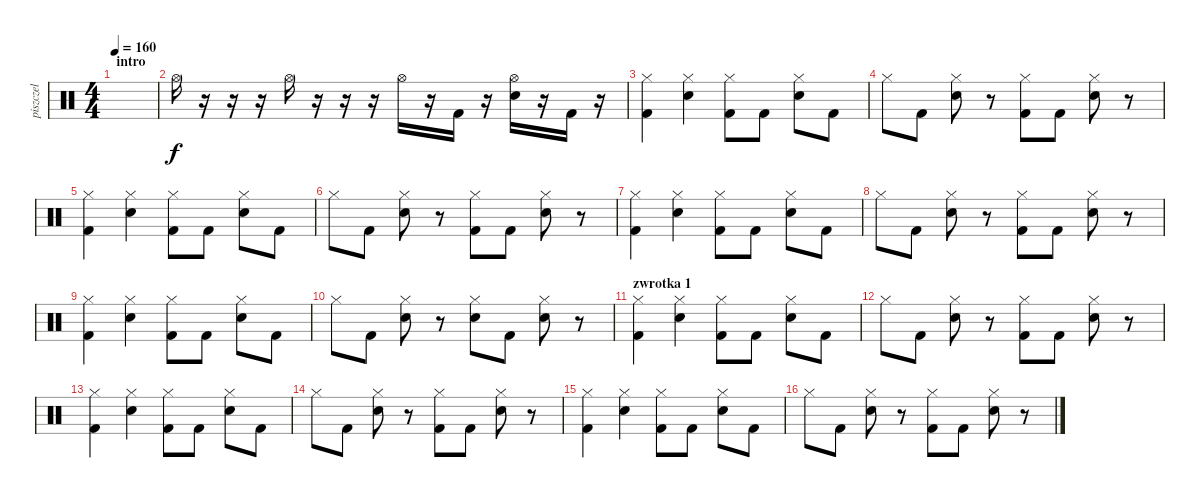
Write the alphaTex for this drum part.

\track ("piszczel" "piszczel") {instrument percussion}
\staff {score}
\articulation defaults
\ts (4 4)
\section ("" "intro")
\tempo 160
\clef neutral
\ks c
|
"Hi-Hat (open)".16 r.16 r.16 r.16 "Hi-Hat (open)".16 r.16 r.16 r.16 "Hi-Hat (open)".16 r.16 "Kick (hit) 2".16 r.16 ("Hi-Hat (open)" "Snare (hit) 2").16 r.16 "Kick (hit) 2".16 r.16 |
("Hi-Hat (closed)" "Kick (hit) 2").4 ("Hi-Hat (closed)" "Snare (hit) 2").4 ("Hi-Hat (closed)" "Kick (hit) 2").8 "Kick (hit) 2".8 ("Hi-Hat (closed)" "Snare (hit) 2").8 "Kick (hit) 2".8 |
"Hi-Hat (closed)".8 "Kick (hit) 2".8 ("Hi-Hat (closed)" "Snare (hit) 2").8 r.8 ("Hi-Hat (closed)" "Kick (hit) 2").8 "Kick (hit) 2".8 ("Hi-Hat (closed)" "Snare (hit) 2").8 r.8 |
("Hi-Hat (closed)" "Kick (hit) 2").4 ("Hi-Hat (closed)" "Snare (hit) 2").4 ("Hi-Hat (closed)" "Kick (hit) 2").8 "Kick (hit) 2".8 ("Hi-Hat (closed)" "Snare (hit) 2").8 "Kick (hit) 2".8 |
"Hi-Hat (closed)".8 "Kick (hit) 2".8 ("Hi-Hat (closed)" "Snare (hit) 2").8 r.8 ("Hi-Hat (closed)" "Kick (hit) 2").8 "Kick (hit) 2".8 ("Hi-Hat (closed)" "Snare (hit) 2").8 r.8 |
("Hi-Hat (closed)" "Kick (hit) 2").4 ("Hi-Hat (closed)" "Snare (hit) 2").4 ("Hi-Hat (closed)" "Kick (hit) 2").8 "Kick (hit) 2".8 ("Hi-Hat (closed)" "Snare (hit) 2").8 "Kick (hit) 2".8 |
"Hi-Hat (closed)".8 "Kick (hit) 2".8 ("Hi-Hat (closed)" "Snare (hit) 2").8 r.8 ("Hi-Hat (closed)" "Kick (hit) 2").8 "Kick (hit) 2".8 ("Hi-Hat (closed)" "Snare (hit) 2").8 r.8 |
("Hi-Hat (closed)" "Kick (hit) 2").4 ("Hi-Hat (closed)" "Snare (hit) 2").4 ("Hi-Hat (closed)" "Kick (hit) 2").8 "Kick (hit) 2".8 ("Hi-Hat (closed)" "Snare (hit) 2").8 "Kick (hit) 2".8 |
"Hi-Hat (closed)".8 "Kick (hit) 2".8 ("Hi-Hat (closed)" "Snare (hit) 2").8 r.8 ("Hi-Hat (closed)" "Snare (hit) 2").8 "Kick (hit) 2".8 ("Hi-Hat (closed)" "Snare (hit) 2").8 r.8 |
\section ("" "zwrotka 1")
("Hi-Hat (closed)" "Kick (hit) 2").4 ("Hi-Hat (closed)" "Snare (hit) 2").4 ("Hi-Hat (closed)" "Kick (hit) 2").8 "Kick (hit) 2".8 ("Hi-Hat (closed)" "Snare (hit) 2").8 "Kick (hit) 2".8 |
"Hi-Hat (closed)".8 "Kick (hit) 2".8 ("Hi-Hat (closed)" "Snare (hit) 2").8 r.8 ("Hi-Hat (closed)" "Kick (hit) 2").8 "Kick (hit) 2".8 ("Hi-Hat (closed)" "Snare (hit) 2").8 r.8 |
("Hi-Hat (closed)" "Kick (hit) 2").4 ("Hi-Hat (closed)" "Snare (hit) 2").4 ("Hi-Hat (closed)" "Kick (hit) 2").8 "Kick (hit) 2".8 ("Hi-Hat (closed)" "Snare (hit) 2").8 "Kick (hit) 2".8 |
"Hi-Hat (closed)".8 "Kick (hit) 2".8 ("Hi-Hat (closed)" "Snare (hit) 2").8 r.8 ("Hi-Hat (closed)" "Kick (hit) 2").8 "Kick (hit) 2".8 ("Hi-Hat (closed)" "Snare (hit) 2").8 r.8 |
("Hi-Hat (closed)" "Kick (hit) 2").4 ("Hi-Hat (closed)" "Snare (hit) 2").4 ("Hi-Hat (closed)" "Kick (hit) 2").8 "Kick (hit) 2".8 ("Hi-Hat (closed)" "Snare (hit) 2").8 "Kick (hit) 2".8 |
"Hi-Hat (closed)".8 "Kick (hit) 2".8 ("Hi-Hat (closed)" "Snare (hit) 2").8 r.8 ("Hi-Hat (closed)" "Kick (hit) 2").8 "Kick (hit) 2".8 ("Hi-Hat (closed)" "Snare (hit) 2").8 r.8
